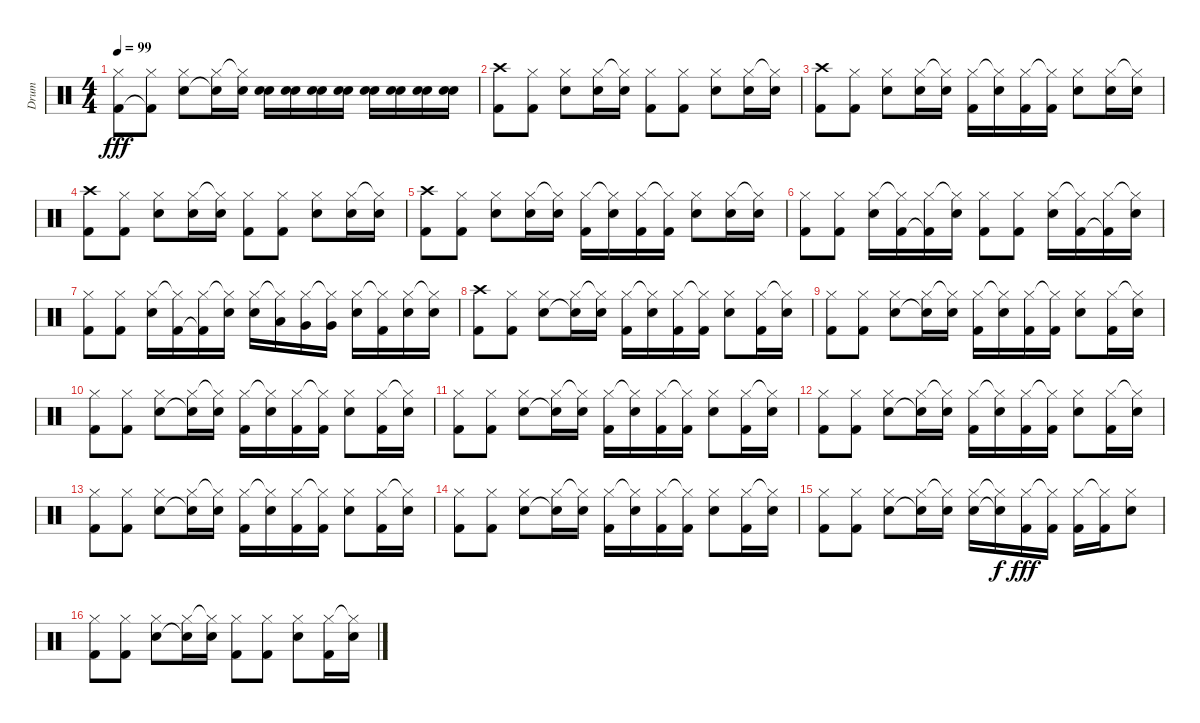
\track ("Drum" "Drum") {instrument percussion}
\staff {score}
\articulation defaults
\ts (4 4)
\tempo 99
\clef neutral
\ks c
("Hi-Hat (closed)" "Kick (hit) 2").8{dy fff} ("Hi-Hat (closed)" "Kick (hit) 2"{t}).8 ("Hi-Hat (closed)" "Electric Snare (hit)").8 ("Hi-Hat (closed)" "Electric Snare (hit)"{t}).16 ("Hi-Hat (closed)"{t} "Electric Snare (hit)").16 ("Electric Snare (hit)" "Electric Snare (hit)").16 ("Electric Snare (hit)" "Electric Snare (hit)").16 ("Electric Snare (hit)" "Electric Snare (hit)").16 ("Electric Snare (hit)" "Electric Snare (hit)").16 ("Snare (hit) 2" "Snare (hit) 2").16 ("Snare (hit) 2" "Snare (hit) 2").16 ("Snare (hit) 2" "Snare (hit) 2").16 ("Snare (hit) 2" "Snare (hit) 2").16 |
("Crash high (hit)" "Kick (hit) 2").8 ("Hi-Hat (closed)" "Kick (hit) 2").8 ("Hi-Hat (closed)" "Electric Snare (hit)").8 ("Hi-Hat (closed)" "Electric Snare (hit)").16 ("Hi-Hat (closed)"{t} "Electric Snare (hit)").16 ("Hi-Hat (closed)" "Kick (hit) 2").8 ("Hi-Hat (closed)" "Kick (hit) 2").8 ("Hi-Hat (closed)" "Electric Snare (hit)").8 ("Hi-Hat (closed)" "Electric Snare (hit)").16 ("Hi-Hat (closed)"{t} "Electric Snare (hit)").16 |
("Crash high (hit)" "Kick (hit) 2").8 ("Hi-Hat (closed)" "Kick (hit) 2").8 ("Hi-Hat (closed)" "Electric Snare (hit)").8 ("Hi-Hat (closed)" "Electric Snare (hit)").16 ("Hi-Hat (closed)"{t} "Electric Snare (hit)").16 ("Hi-Hat (closed)" "Kick (hit) 2").16 ("Hi-Hat (closed)"{t} "Electric Snare (hit)").16 ("Hi-Hat (closed)" "Kick (hit) 2").16 ("Hi-Hat (closed)"{t} "Kick (hit) 2").16 ("Hi-Hat (closed)" "Electric Snare (hit)").8 ("Hi-Hat (closed)" "Electric Snare (hit)").16 ("Hi-Hat (closed)"{t} "Electric Snare (hit)").16 |
("Crash high (hit)" "Kick (hit) 2").8 ("Hi-Hat (closed)" "Kick (hit) 2").8 ("Hi-Hat (closed)" "Electric Snare (hit)").8 ("Hi-Hat (closed)" "Electric Snare (hit)").16 ("Hi-Hat (closed)"{t} "Electric Snare (hit)").16 ("Hi-Hat (closed)" "Kick (hit) 2").8 ("Hi-Hat (closed)" "Kick (hit) 2").8 ("Hi-Hat (closed)" "Electric Snare (hit)").8 ("Hi-Hat (closed)" "Electric Snare (hit)").16 ("Hi-Hat (closed)"{t} "Electric Snare (hit)").16 |
("Crash high (hit)" "Kick (hit) 2").8 ("Hi-Hat (closed)" "Kick (hit) 2").8 ("Hi-Hat (closed)" "Electric Snare (hit)").8 ("Hi-Hat (closed)" "Electric Snare (hit)").16 ("Hi-Hat (closed)"{t} "Electric Snare (hit)").16 ("Hi-Hat (closed)" "Kick (hit) 2").16 ("Hi-Hat (closed)"{t} "Electric Snare (hit)").16 ("Hi-Hat (closed)" "Kick (hit) 2").16 ("Hi-Hat (closed)"{t} "Kick (hit) 2").16 ("Hi-Hat (closed)" "Electric Snare (hit)").8 ("Hi-Hat (closed)" "Electric Snare (hit)").16 ("Hi-Hat (closed)"{t} "Electric Snare (hit)").16 |
("Hi-Hat (closed)" "Kick (hit) 2").8 ("Hi-Hat (closed)" "Kick (hit) 2").8 ("Hi-Hat (closed)" "Electric Snare (hit)").16 ("Hi-Hat (closed)"{t} "Kick (hit) 2").16 ("Hi-Hat (closed)" "Kick (hit) 2"{t}).16 ("Hi-Hat (closed)"{t} "Electric Snare (hit)").16 ("Hi-Hat (closed)" "Kick (hit) 2").8 ("Hi-Hat (closed)" "Kick (hit) 2").8 ("Hi-Hat (closed)" "Electric Snare (hit)").16 ("Hi-Hat (closed)"{t} "Kick (hit) 2").16 ("Hi-Hat (closed)" "Kick (hit) 2"{t}).16 ("Hi-Hat (closed)"{t} "Electric Snare (hit)").16 |
("Hi-Hat (closed)" "Kick (hit) 2").8 ("Hi-Hat (closed)" "Kick (hit) 2").8 ("Hi-Hat (closed)" "Electric Snare (hit)").16 ("Hi-Hat (closed)"{t} "Kick (hit) 2").16 ("Hi-Hat (closed)" "Kick (hit) 2"{t}).16 ("Hi-Hat (closed)"{t} "Electric Snare (hit)").16 ("Hi-Hat (closed)" "Electric Snare (hit)").16 ("Hi-Hat (closed)"{t} "Low Tom (hit)").16 ("Hi-Hat (closed)" "Very Low Tom (hit)").16 ("Hi-Hat (closed)"{t} "Very Low Tom (hit)").16 ("Hi-Hat (closed)" "Electric Snare (hit)").16 ("Hi-Hat (closed)"{t} "Kick (hit) 2").16 ("Hi-Hat (closed)" "Electric Snare (hit)").16 ("Hi-Hat (closed)"{t} "Electric Snare (hit)").16 |
("Crash high (hit)" "Kick (hit) 2").8 ("Hi-Hat (closed)" "Kick (hit) 2").8 ("Hi-Hat (closed)" "Electric Snare (hit)").8 ("Hi-Hat (closed)" "Electric Snare (hit)"{t}).16 ("Hi-Hat (closed)"{t} "Electric Snare (hit)").16 ("Hi-Hat (closed)" "Kick (hit) 2").16 ("Hi-Hat (closed)"{t} "Electric Snare (hit)").16 ("Hi-Hat (closed)" "Kick (hit) 2").16 ("Hi-Hat (closed)"{t} "Kick (hit) 2").16 ("Hi-Hat (closed)" "Electric Snare (hit)").8 ("Hi-Hat (closed)" "Kick (hit) 2").16 ("Hi-Hat (closed)"{t} "Electric Snare (hit)").16 |
("Hi-Hat (closed)" "Kick (hit) 2").8 ("Hi-Hat (closed)" "Kick (hit) 2").8 ("Hi-Hat (closed)" "Electric Snare (hit)").8 ("Hi-Hat (closed)" "Electric Snare (hit)"{t}).16 ("Hi-Hat (closed)"{t} "Electric Snare (hit)").16 ("Hi-Hat (closed)" "Kick (hit) 2").16 ("Hi-Hat (closed)"{t} "Electric Snare (hit)").16 ("Hi-Hat (closed)" "Kick (hit) 2").16 ("Hi-Hat (closed)"{t} "Kick (hit) 2").16 ("Hi-Hat (closed)" "Electric Snare (hit)").8 ("Hi-Hat (closed)" "Kick (hit) 2").16 ("Hi-Hat (closed)"{t} "Electric Snare (hit)").16 |
("Hi-Hat (closed)" "Kick (hit) 2").8 ("Hi-Hat (closed)" "Kick (hit) 2").8 ("Hi-Hat (closed)" "Electric Snare (hit)").8 ("Hi-Hat (closed)" "Electric Snare (hit)"{t}).16 ("Hi-Hat (closed)"{t} "Electric Snare (hit)").16 ("Hi-Hat (closed)" "Kick (hit) 2").16 ("Hi-Hat (closed)"{t} "Electric Snare (hit)").16 ("Hi-Hat (closed)" "Kick (hit) 2").16 ("Hi-Hat (closed)"{t} "Kick (hit) 2").16 ("Hi-Hat (closed)" "Electric Snare (hit)").8 ("Hi-Hat (closed)" "Kick (hit) 2").16 ("Hi-Hat (closed)"{t} "Electric Snare (hit)").16 |
("Hi-Hat (closed)" "Kick (hit) 2").8 ("Hi-Hat (closed)" "Kick (hit) 2").8 ("Hi-Hat (closed)" "Electric Snare (hit)").8 ("Hi-Hat (closed)" "Electric Snare (hit)"{t}).16 ("Hi-Hat (closed)"{t} "Electric Snare (hit)").16 ("Hi-Hat (closed)" "Kick (hit) 2").16 ("Hi-Hat (closed)"{t} "Electric Snare (hit)").16 ("Hi-Hat (closed)" "Kick (hit) 2").16 ("Hi-Hat (closed)"{t} "Kick (hit) 2").16 ("Hi-Hat (closed)" "Electric Snare (hit)").8 ("Hi-Hat (closed)" "Kick (hit) 2").16 ("Hi-Hat (closed)"{t} "Electric Snare (hit)").16 |
("Hi-Hat (closed)" "Kick (hit) 2").8 ("Hi-Hat (closed)" "Kick (hit) 2").8 ("Hi-Hat (closed)" "Electric Snare (hit)").8 ("Hi-Hat (closed)" "Electric Snare (hit)"{t}).16 ("Hi-Hat (closed)"{t} "Electric Snare (hit)").16 ("Hi-Hat (closed)" "Kick (hit) 2").16 ("Hi-Hat (closed)"{t} "Electric Snare (hit)").16 ("Hi-Hat (closed)" "Kick (hit) 2").16 ("Hi-Hat (closed)"{t} "Kick (hit) 2").16 ("Hi-Hat (closed)" "Electric Snare (hit)").8 ("Hi-Hat (closed)" "Kick (hit) 2").16 ("Hi-Hat (closed)"{t} "Electric Snare (hit)").16 |
("Hi-Hat (closed)" "Kick (hit) 2").8 ("Hi-Hat (closed)" "Kick (hit) 2").8 ("Hi-Hat (closed)" "Electric Snare (hit)").8 ("Hi-Hat (closed)" "Electric Snare (hit)"{t}).16 ("Hi-Hat (closed)"{t} "Electric Snare (hit)").16 ("Hi-Hat (closed)" "Kick (hit) 2").16 ("Hi-Hat (closed)"{t} "Electric Snare (hit)").16 ("Hi-Hat (closed)" "Kick (hit) 2").16 ("Hi-Hat (closed)"{t} "Kick (hit) 2").16 ("Hi-Hat (closed)" "Electric Snare (hit)").8 ("Hi-Hat (closed)" "Kick (hit) 2").16 ("Hi-Hat (closed)"{t} "Electric Snare (hit)").16 |
("Hi-Hat (closed)" "Kick (hit) 2").8 ("Hi-Hat (closed)" "Kick (hit) 2").8 ("Hi-Hat (closed)" "Electric Snare (hit)").8 ("Hi-Hat (closed)" "Electric Snare (hit)"{t}).16 ("Hi-Hat (closed)"{t} "Electric Snare (hit)").16 ("Hi-Hat (closed)" "Kick (hit) 2").16 ("Hi-Hat (closed)"{t} "Electric Snare (hit)").16 ("Hi-Hat (closed)" "Kick (hit) 2").16 ("Hi-Hat (closed)"{t} "Kick (hit) 2").16 ("Hi-Hat (closed)" "Electric Snare (hit)").8 ("Hi-Hat (closed)" "Kick (hit) 2").16 ("Hi-Hat (closed)"{t} "Electric Snare (hit)").16 |
("Hi-Hat (closed)" "Kick (hit) 2").8 ("Hi-Hat (closed)" "Kick (hit) 2").8 ("Hi-Hat (closed)" "Electric Snare (hit)").8 ("Hi-Hat (closed)" "Electric Snare (hit)"{t}).16 ("Hi-Hat (closed)"{t} "Electric Snare (hit)").16 ("Hi-Hat (closed)" "Electric Snare (hit)").16 ("Hi-Hat (closed)"{t} "Electric Snare (hit)"{t}).16{dy f} ("Hi-Hat (closed)" "Kick (hit) 2").16{dy fff} ("Hi-Hat (closed)"{t} "Kick (hit) 2").16 ("Hi-Hat (closed)" "Kick (hit) 2").16 ("Hi-Hat (closed)"{t} "Kick (hit) 2").16 ("Hi-Hat (closed)" "Electric Snare (hit)").8 |
("Hi-Hat (closed)" "Kick (hit) 2").8 ("Hi-Hat (closed)" "Kick (hit) 2").8 ("Hi-Hat (closed)" "Electric Snare (hit)").8 ("Hi-Hat (closed)" "Electric Snare (hit)"{t}).16 ("Hi-Hat (closed)"{t} "Electric Snare (hit)").16 ("Hi-Hat (closed)" "Kick (hit) 2").8 ("Hi-Hat (closed)" "Kick (hit) 2").8 ("Hi-Hat (closed)" "Electric Snare (hit)").8 ("Hi-Hat (closed)" "Kick (hit) 2").16 ("Hi-Hat (closed)"{t} "Electric Snare (hit)").16
